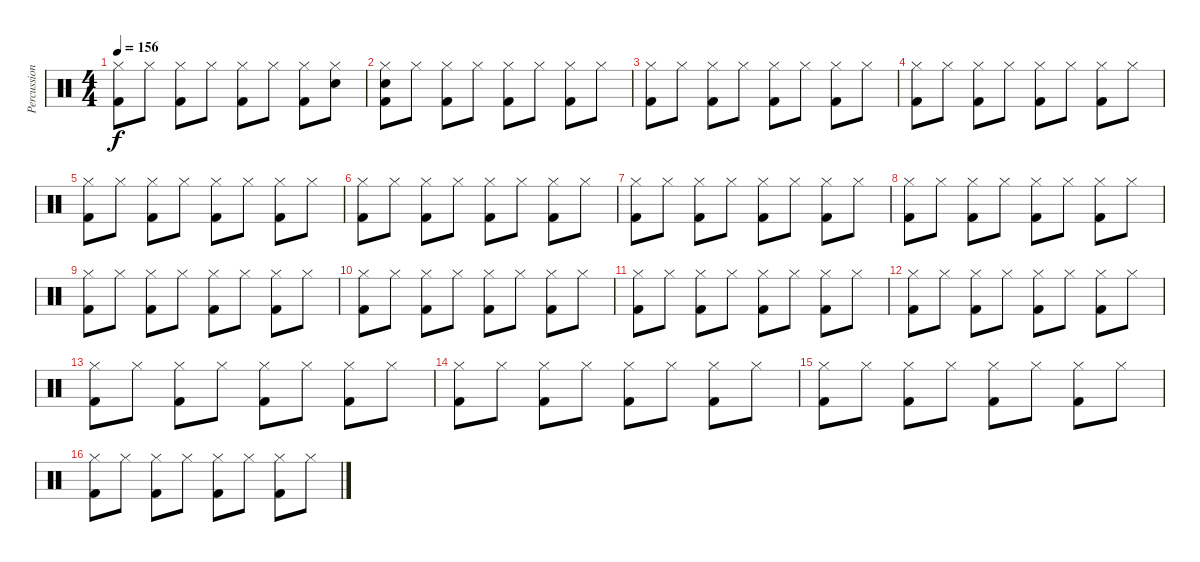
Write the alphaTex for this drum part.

\track ("Percussions" "Percussion") {instrument percussion}
\staff {score}
\articulation defaults
\ts (4 4)
\tempo 156
\clef neutral
\ks c
("Kick (hit) 2" "Hi-Hat (closed)").8{dy f} "Hi-Hat (closed)".8 ("Kick (hit) 2" "Hi-Hat (closed)").8 "Hi-Hat (closed)".8 ("Kick (hit) 2" "Hi-Hat (closed)").8 "Hi-Hat (closed)".8 ("Kick (hit) 2" "Hi-Hat (closed)").8 ("Electric Snare (hit)" "Hi-Hat (closed)").8 |
("Kick (hit) 2" "Electric Snare (hit)" "Hi-Hat (closed)").8 "Hi-Hat (closed)".8 ("Kick (hit) 2" "Hi-Hat (closed)").8 "Hi-Hat (closed)".8 ("Kick (hit) 2" "Hi-Hat (closed)").8 "Hi-Hat (closed)".8 ("Kick (hit) 2" "Hi-Hat (closed)").8 "Hi-Hat (closed)".8 |
("Kick (hit) 2" "Hi-Hat (closed)").8 "Hi-Hat (closed)".8 ("Kick (hit) 2" "Hi-Hat (closed)").8 "Hi-Hat (closed)".8 ("Kick (hit) 2" "Hi-Hat (closed)").8 "Hi-Hat (closed)".8 ("Kick (hit) 2" "Hi-Hat (closed)").8 "Hi-Hat (closed)".8 |
("Kick (hit) 2" "Hi-Hat (closed)").8 "Hi-Hat (closed)".8 ("Kick (hit) 2" "Hi-Hat (closed)").8 "Hi-Hat (closed)".8 ("Kick (hit) 2" "Hi-Hat (closed)").8 "Hi-Hat (closed)".8 ("Kick (hit) 2" "Hi-Hat (closed)").8 "Hi-Hat (closed)".8 |
("Kick (hit) 2" "Hi-Hat (closed)").8 "Hi-Hat (closed)".8 ("Kick (hit) 2" "Hi-Hat (closed)").8 "Hi-Hat (closed)".8 ("Kick (hit) 2" "Hi-Hat (closed)").8 "Hi-Hat (closed)".8 ("Kick (hit) 2" "Hi-Hat (closed)").8 "Hi-Hat (closed)".8 |
("Kick (hit) 2" "Hi-Hat (closed)").8 "Hi-Hat (closed)".8 ("Kick (hit) 2" "Hi-Hat (closed)").8 "Hi-Hat (closed)".8 ("Kick (hit) 2" "Hi-Hat (closed)").8 "Hi-Hat (closed)".8 ("Kick (hit) 2" "Hi-Hat (closed)").8 "Hi-Hat (closed)".8 |
("Kick (hit) 2" "Hi-Hat (closed)").8 "Hi-Hat (closed)".8 ("Kick (hit) 2" "Hi-Hat (closed)").8 "Hi-Hat (closed)".8 ("Kick (hit) 2" "Hi-Hat (closed)").8 "Hi-Hat (closed)".8 ("Kick (hit) 2" "Hi-Hat (closed)").8 "Hi-Hat (closed)".8 |
("Kick (hit) 2" "Hi-Hat (closed)").8 "Hi-Hat (closed)".8 ("Kick (hit) 2" "Hi-Hat (closed)").8 "Hi-Hat (closed)".8 ("Kick (hit) 2" "Hi-Hat (closed)").8 "Hi-Hat (closed)".8 ("Kick (hit) 2" "Hi-Hat (closed)").8 "Hi-Hat (closed)".8 |
("Kick (hit) 2" "Hi-Hat (closed)").8 "Hi-Hat (closed)".8 ("Kick (hit) 2" "Hi-Hat (closed)").8 "Hi-Hat (closed)".8 ("Kick (hit) 2" "Hi-Hat (closed)").8 "Hi-Hat (closed)".8 ("Kick (hit) 2" "Hi-Hat (closed)").8 "Hi-Hat (closed)".8 |
("Kick (hit) 2" "Hi-Hat (closed)").8 "Hi-Hat (closed)".8 ("Kick (hit) 2" "Hi-Hat (closed)").8 "Hi-Hat (closed)".8 ("Kick (hit) 2" "Hi-Hat (closed)").8 "Hi-Hat (closed)".8 ("Kick (hit) 2" "Hi-Hat (closed)").8 "Hi-Hat (closed)".8 |
("Kick (hit) 2" "Hi-Hat (closed)").8 "Hi-Hat (closed)".8 ("Kick (hit) 2" "Hi-Hat (closed)").8 "Hi-Hat (closed)".8 ("Kick (hit) 2" "Hi-Hat (closed)").8 "Hi-Hat (closed)".8 ("Kick (hit) 2" "Hi-Hat (closed)").8 "Hi-Hat (closed)".8 |
("Kick (hit) 2" "Hi-Hat (closed)").8 "Hi-Hat (closed)".8 ("Kick (hit) 2" "Hi-Hat (closed)").8 "Hi-Hat (closed)".8 ("Kick (hit) 2" "Hi-Hat (closed)").8 "Hi-Hat (closed)".8 ("Kick (hit) 2" "Hi-Hat (closed)").8 "Hi-Hat (closed)".8 |
("Kick (hit) 2" "Hi-Hat (closed)").8 "Hi-Hat (closed)".8 ("Kick (hit) 2" "Hi-Hat (closed)").8 "Hi-Hat (closed)".8 ("Kick (hit) 2" "Hi-Hat (closed)").8 "Hi-Hat (closed)".8 ("Kick (hit) 2" "Hi-Hat (closed)").8 "Hi-Hat (closed)".8 |
("Kick (hit) 2" "Hi-Hat (closed)").8 "Hi-Hat (closed)".8 ("Kick (hit) 2" "Hi-Hat (closed)").8 "Hi-Hat (closed)".8 ("Kick (hit) 2" "Hi-Hat (closed)").8 "Hi-Hat (closed)".8 ("Kick (hit) 2" "Hi-Hat (closed)").8 "Hi-Hat (closed)".8 |
("Kick (hit) 2" "Hi-Hat (closed)").8 "Hi-Hat (closed)".8 ("Kick (hit) 2" "Hi-Hat (closed)").8 "Hi-Hat (closed)".8 ("Kick (hit) 2" "Hi-Hat (closed)").8 "Hi-Hat (closed)".8 ("Kick (hit) 2" "Hi-Hat (closed)").8 "Hi-Hat (closed)".8 |
("Kick (hit) 2" "Hi-Hat (closed)").8 "Hi-Hat (closed)".8 ("Kick (hit) 2" "Hi-Hat (closed)").8 "Hi-Hat (closed)".8 ("Kick (hit) 2" "Hi-Hat (closed)").8 "Hi-Hat (closed)".8 ("Kick (hit) 2" "Hi-Hat (closed)").8 "Hi-Hat (closed)".8
